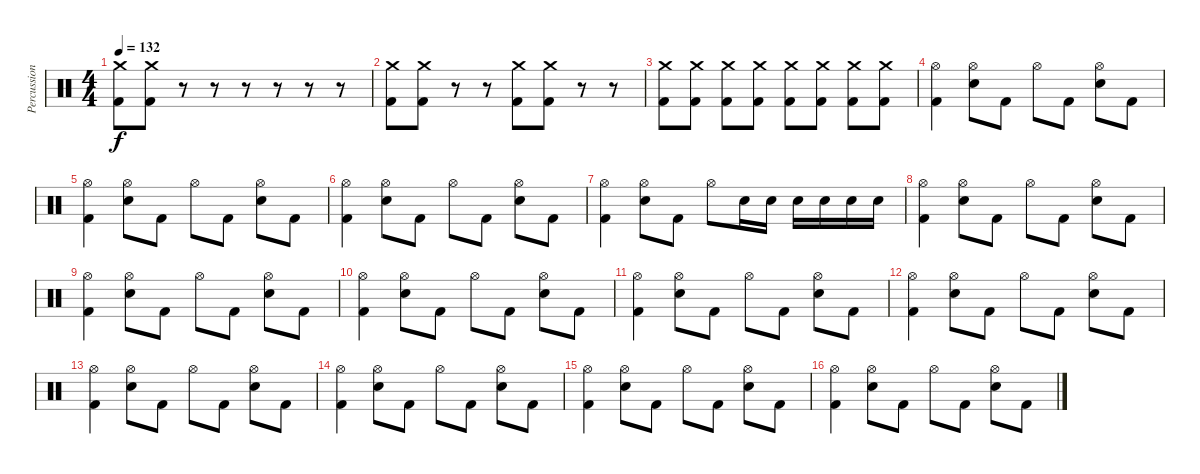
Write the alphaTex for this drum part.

\track ("Percussions" "Percussion") {instrument percussion}
\staff {score}
\articulation defaults
\ts (4 4)
\tempo 132
\clef neutral
\ks c
("Kick (hit) 2" "Crash medium (hit)").8{dy f} ("Kick (hit) 2" "Crash medium (hit)").8 r.8 r.8 r.8 r.8 r.8 r.8 |
("Kick (hit) 2" "Crash medium (hit)").8 ("Kick (hit) 2" "Crash medium (hit)").8 r.8 r.8 ("Kick (hit) 2" "Crash medium (hit)").8 ("Kick (hit) 2" "Crash medium (hit)").8 r.8 r.8 |
("Kick (hit) 2" "Crash medium (hit)").8 ("Kick (hit) 2" "Crash medium (hit)").8 ("Kick (hit) 2" "Crash medium (hit)").8 ("Kick (hit) 2" "Crash medium (hit)").8 ("Kick (hit) 2" "Crash medium (hit)").8 ("Kick (hit) 2" "Crash medium (hit)").8 ("Kick (hit) 2" "Crash medium (hit)").8 ("Kick (hit) 2" "Crash medium (hit)").8 |
("Kick (hit) 2" "Hi-Hat (open)").4 ("Electric Snare (hit)" "Hi-Hat (open)").8 "Kick (hit) 2".8 "Hi-Hat (open)".8 "Kick (hit) 2".8 ("Electric Snare (hit)" "Hi-Hat (open)").8 "Kick (hit) 2".8 |
("Kick (hit) 2" "Hi-Hat (open)").4 ("Electric Snare (hit)" "Hi-Hat (open)").8 "Kick (hit) 2".8 "Hi-Hat (open)".8 "Kick (hit) 2".8 ("Electric Snare (hit)" "Hi-Hat (open)").8 "Kick (hit) 2".8 |
("Kick (hit) 2" "Hi-Hat (open)").4 ("Electric Snare (hit)" "Hi-Hat (open)").8 "Kick (hit) 2".8 "Hi-Hat (open)".8 "Kick (hit) 2".8 ("Electric Snare (hit)" "Hi-Hat (open)").8 "Kick (hit) 2".8 |
("Kick (hit) 2" "Hi-Hat (open)").4 ("Electric Snare (hit)" "Hi-Hat (open)").8 "Kick (hit) 2".8 "Hi-Hat (open)".8 "Electric Snare (hit)".16 "Electric Snare (hit)".16 "Electric Snare (hit)".16 "Electric Snare (hit)".16 "Electric Snare (hit)".16 "Electric Snare (hit)".16 |
("Kick (hit) 2" "Hi-Hat (open)").4 ("Electric Snare (hit)" "Hi-Hat (open)").8 "Kick (hit) 2".8 "Hi-Hat (open)".8 "Kick (hit) 2".8 ("Electric Snare (hit)" "Hi-Hat (open)").8 "Kick (hit) 2".8 |
("Kick (hit) 2" "Hi-Hat (open)").4 ("Electric Snare (hit)" "Hi-Hat (open)").8 "Kick (hit) 2".8 "Hi-Hat (open)".8 "Kick (hit) 2".8 ("Electric Snare (hit)" "Hi-Hat (open)").8 "Kick (hit) 2".8 |
("Kick (hit) 2" "Hi-Hat (open)").4 ("Electric Snare (hit)" "Hi-Hat (open)").8 "Kick (hit) 2".8 "Hi-Hat (open)".8 "Kick (hit) 2".8 ("Electric Snare (hit)" "Hi-Hat (open)").8 "Kick (hit) 2".8 |
("Kick (hit) 2" "Hi-Hat (open)").4 ("Electric Snare (hit)" "Hi-Hat (open)").8 "Kick (hit) 2".8 "Hi-Hat (open)".8 "Kick (hit) 2".8 ("Electric Snare (hit)" "Hi-Hat (open)").8 "Kick (hit) 2".8 |
("Kick (hit) 2" "Hi-Hat (open)").4 ("Electric Snare (hit)" "Hi-Hat (open)").8 "Kick (hit) 2".8 "Hi-Hat (open)".8 "Kick (hit) 2".8 ("Electric Snare (hit)" "Hi-Hat (open)").8 "Kick (hit) 2".8 |
("Kick (hit) 2" "Hi-Hat (open)").4 ("Electric Snare (hit)" "Hi-Hat (open)").8 "Kick (hit) 2".8 "Hi-Hat (open)".8 "Kick (hit) 2".8 ("Electric Snare (hit)" "Hi-Hat (open)").8 "Kick (hit) 2".8 |
("Kick (hit) 2" "Hi-Hat (open)").4 ("Electric Snare (hit)" "Hi-Hat (open)").8 "Kick (hit) 2".8 "Hi-Hat (open)".8 "Kick (hit) 2".8 ("Electric Snare (hit)" "Hi-Hat (open)").8 "Kick (hit) 2".8 |
("Kick (hit) 2" "Hi-Hat (open)").4 ("Electric Snare (hit)" "Hi-Hat (open)").8 "Kick (hit) 2".8 "Hi-Hat (open)".8 "Kick (hit) 2".8 ("Electric Snare (hit)" "Hi-Hat (open)").8 "Kick (hit) 2".8 |
("Kick (hit) 2" "Hi-Hat (open)").4 ("Electric Snare (hit)" "Hi-Hat (open)").8 "Kick (hit) 2".8 "Hi-Hat (open)".8 "Kick (hit) 2".8 ("Electric Snare (hit)" "Hi-Hat (open)").8 "Kick (hit) 2".8
